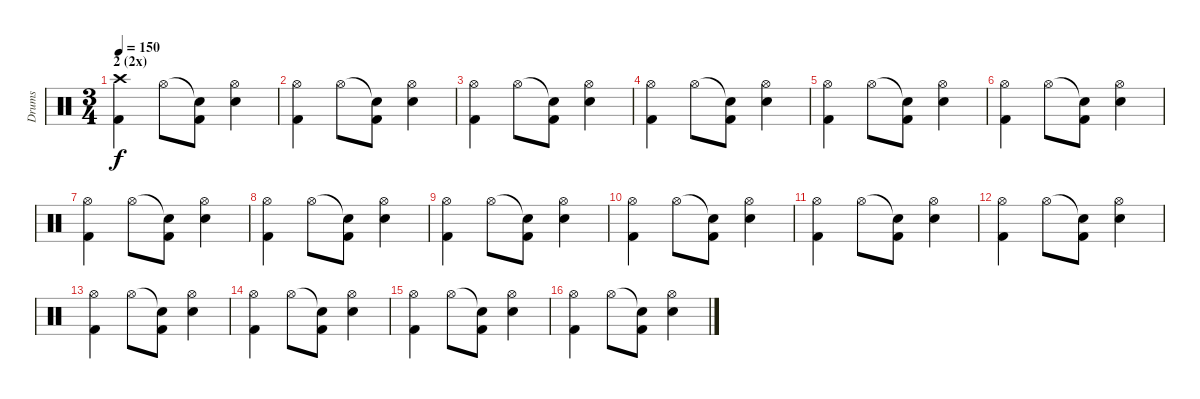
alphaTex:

\track ("Drums" "Drums") {instrument percussion}
\staff {score}
\articulation defaults
\ts (3 4)
\section ("" "2 (2x)")
\tempo 150
\clef neutral
\ks c
("Crash high (hit)" "Kick (hit) 2").4{dy f} "Hi-Hat (open)".8 ("Snare (hit)"{t} "Kick (hit) 2").8 ("Hi-Hat (open)" "Snare (hit) 2").4 |
("Hi-Hat (open)" "Kick (hit) 2").4 "Hi-Hat (open)".8 ("Snare (hit)"{t} "Kick (hit) 2").8 ("Hi-Hat (open)" "Snare (hit) 2").4 |
("Hi-Hat (open)" "Kick (hit) 2").4 "Hi-Hat (open)".8 ("Snare (hit)"{t} "Kick (hit) 2").8 ("Hi-Hat (open)" "Snare (hit) 2").4 |
("Hi-Hat (open)" "Kick (hit) 2").4 "Hi-Hat (open)".8 ("Snare (hit)"{t} "Kick (hit) 2").8 ("Hi-Hat (open)" "Snare (hit) 2").4 |
("Hi-Hat (open)" "Kick (hit) 2").4 "Hi-Hat (open)".8 ("Snare (hit)"{t} "Kick (hit) 2").8 ("Hi-Hat (open)" "Snare (hit) 2").4 |
("Hi-Hat (open)" "Kick (hit) 2").4 "Hi-Hat (open)".8 ("Snare (hit)"{t} "Kick (hit) 2").8 ("Hi-Hat (open)" "Snare (hit) 2").4 |
("Hi-Hat (open)" "Kick (hit) 2").4 "Hi-Hat (open)".8 ("Snare (hit)"{t} "Kick (hit) 2").8 ("Hi-Hat (open)" "Snare (hit) 2").4 |
("Hi-Hat (open)" "Kick (hit) 2").4 "Hi-Hat (open)".8 ("Snare (hit)"{t} "Kick (hit) 2").8 ("Hi-Hat (open)" "Snare (hit) 2").4 |
("Hi-Hat (open)" "Kick (hit) 2").4 "Hi-Hat (open)".8 ("Snare (hit)"{t} "Kick (hit) 2").8 ("Hi-Hat (open)" "Snare (hit) 2").4 |
("Hi-Hat (open)" "Kick (hit) 2").4 "Hi-Hat (open)".8 ("Snare (hit)"{t} "Kick (hit) 2").8 ("Hi-Hat (open)" "Snare (hit) 2").4 |
("Hi-Hat (open)" "Kick (hit) 2").4 "Hi-Hat (open)".8 ("Snare (hit)"{t} "Kick (hit) 2").8 ("Hi-Hat (open)" "Snare (hit) 2").4 |
("Hi-Hat (open)" "Kick (hit) 2").4 "Hi-Hat (open)".8 ("Snare (hit)"{t} "Kick (hit) 2").8 ("Hi-Hat (open)" "Snare (hit) 2").4 |
("Hi-Hat (open)" "Kick (hit) 2").4 "Hi-Hat (open)".8 ("Snare (hit)"{t} "Kick (hit) 2").8 ("Hi-Hat (open)" "Snare (hit) 2").4 |
("Hi-Hat (open)" "Kick (hit) 2").4 "Hi-Hat (open)".8 ("Snare (hit)"{t} "Kick (hit) 2").8 ("Hi-Hat (open)" "Snare (hit) 2").4 |
("Hi-Hat (open)" "Kick (hit) 2").4 "Hi-Hat (open)".8 ("Snare (hit)"{t} "Kick (hit) 2").8 ("Hi-Hat (open)" "Snare (hit) 2").4 |
("Hi-Hat (open)" "Kick (hit) 2").4 "Hi-Hat (open)".8 ("Snare (hit)"{t} "Kick (hit) 2").8 ("Hi-Hat (open)" "Snare (hit) 2").4
